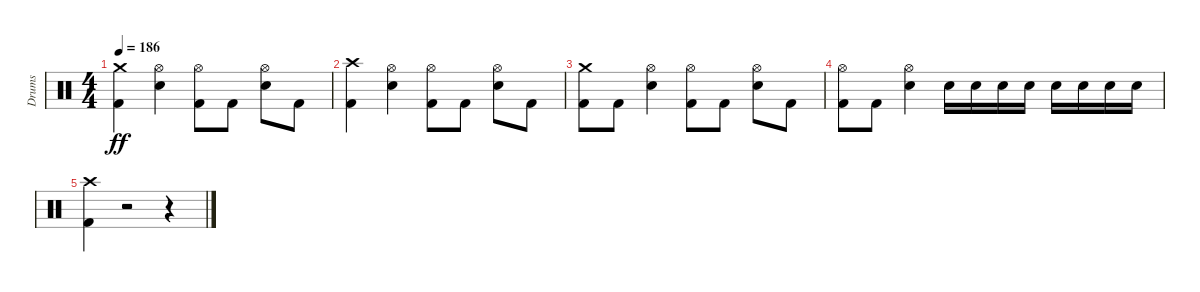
\track ("Drums" "Drums") {instrument percussion}
\staff {score}
\articulation defaults
\ts (4 4)
\tempo 186
\clef neutral
\ks c
("Kick (hit) 2" "Crash medium (hit)").4{dy ff} ("Snare (hit) 2" "Hi-Hat (open)").4 ("Kick (hit) 2" "Hi-Hat (open)").8 "Kick (hit) 2".8 ("Snare (hit) 2" "Hi-Hat (open)").8 "Kick (hit) 2".8 |
("Kick (hit) 2" "Crash high (hit)").4 ("Snare (hit) 2" "Hi-Hat (open)").4 ("Kick (hit) 2" "Hi-Hat (open)").8 "Kick (hit) 2".8 ("Snare (hit) 2" "Hi-Hat (open)").8 "Kick (hit) 2".8 |
("Kick (hit) 2" "Crash medium (hit)").8 "Kick (hit) 2".8 ("Snare (hit) 2" "Hi-Hat (open)").4 ("Kick (hit) 2" "Hi-Hat (open)").8 "Kick (hit) 2".8 ("Snare (hit) 2" "Hi-Hat (open)").8 "Kick (hit) 2".8 |
("Kick (hit) 2" "Hi-Hat (open)").8 "Kick (hit) 2".8 ("Snare (hit) 2" "Hi-Hat (open)").4 "Snare (hit) 2".16 "Snare (hit) 2".16 "Snare (hit) 2".16 "Snare (hit) 2".16 "Snare (hit) 2".16 "Snare (hit) 2".16 "Snare (hit) 2".16 "Snare (hit) 2".16 |
("Kick (hit) 2" "Crash high (hit)").4 r.2 r.4
